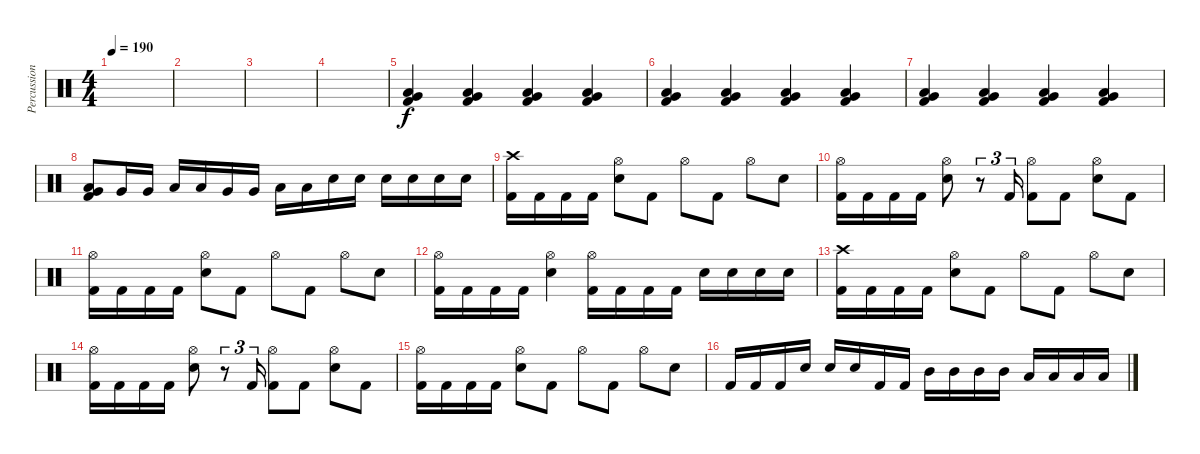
\track ("Percussion" "Percussion") {instrument percussion}
\staff {score}
\articulation defaults
\ts (4 4)
\tempo 190
\clef neutral
\ks c
|
|
|
|
("Low Floor Tom (hit)" "Very Low Tom (hit)" "Kick (hit) 2").4 ("Low Floor Tom (hit)" "Very Low Tom (hit)" "Kick (hit) 2").4 ("Low Floor Tom (hit)" "Very Low Tom (hit)" "Kick (hit) 2").4 ("Low Floor Tom (hit)" "Very Low Tom (hit)" "Kick (hit) 2").4 |
("Low Floor Tom (hit)" "Very Low Tom (hit)" "Kick (hit) 2").4 ("Low Floor Tom (hit)" "Very Low Tom (hit)" "Kick (hit) 2").4 ("Low Floor Tom (hit)" "Very Low Tom (hit)" "Kick (hit) 2").4 ("Low Floor Tom (hit)" "Very Low Tom (hit)" "Kick (hit) 2").4 |
("Low Floor Tom (hit)" "Very Low Tom (hit)" "Kick (hit) 2").4 ("Low Floor Tom (hit)" "Very Low Tom (hit)" "Kick (hit) 2").4 ("Low Floor Tom (hit)" "Very Low Tom (hit)" "Kick (hit) 2").4 ("Low Floor Tom (hit)" "Very Low Tom (hit)" "Kick (hit) 2").4 |
("Low Floor Tom (hit)" "Very Low Tom (hit)" "Kick (hit) 2").8 "Very Low Tom (hit)".16 "Very Low Tom (hit)".16 "Low Floor Tom (hit)".16 "Low Floor Tom (hit)".16 "Very Low Tom (hit)".16 "Very Low Tom (hit)".16 "Low Floor Tom (hit)".16 "Low Floor Tom (hit)".16 "Electric Snare (hit)".16 "Electric Snare (hit)".16 "Electric Snare (hit)".16 "Electric Snare (hit)".16 "Electric Snare (hit)".16 "Electric Snare (hit)".16 |
("Crash high (hit)" "Kick (hit) 2").16 "Kick (hit) 2".16 "Kick (hit) 2".16 "Kick (hit) 2".16 ("Hi-Hat (open)" "Electric Snare (hit)").8 "Kick (hit) 2".8 "Hi-Hat (open)".8 "Kick (hit) 2".8 "Hi-Hat (open)".8 "Electric Snare (hit)".8 |
("Hi-Hat (open)" "Kick (hit) 2").16 "Kick (hit) 2".16 "Kick (hit) 2".16 "Kick (hit) 2".16 ("Hi-Hat (open)" "Electric Snare (hit)").8 r.8{tu (3 2)} "Kick (hit) 2".16{tu (3 2)} ("Hi-Hat (open)" "Kick (hit) 2").8 "Kick (hit) 2".8 ("Hi-Hat (open)" "Electric Snare (hit)").8 "Kick (hit) 2".8 |
("Hi-Hat (open)" "Kick (hit) 2").16 "Kick (hit) 2".16 "Kick (hit) 2".16 "Kick (hit) 2".16 ("Hi-Hat (open)" "Electric Snare (hit)").8 "Kick (hit) 2".8 "Hi-Hat (open)".8 "Kick (hit) 2".8 "Hi-Hat (open)".8 "Electric Snare (hit)".8 |
("Hi-Hat (open)" "Kick (hit) 2").16 "Kick (hit) 2".16 "Kick (hit) 2".16 "Kick (hit) 2".16 ("Hi-Hat (open)" "Electric Snare (hit)").4 ("Hi-Hat (open)" "Kick (hit) 2").16 "Kick (hit) 2".16 "Kick (hit) 2".16 "Kick (hit) 2".16 "Electric Snare (hit)".16 "Electric Snare (hit)".16 "Electric Snare (hit)".16 "Electric Snare (hit)".16 |
("Crash high (hit)" "Kick (hit) 2").16 "Kick (hit) 2".16 "Kick (hit) 2".16 "Kick (hit) 2".16 ("Hi-Hat (open)" "Electric Snare (hit)").8 "Kick (hit) 2".8 "Hi-Hat (open)".8 "Kick (hit) 2".8 "Hi-Hat (open)".8 "Electric Snare (hit)".8 |
("Hi-Hat (open)" "Kick (hit) 2").16 "Kick (hit) 2".16 "Kick (hit) 2".16 "Kick (hit) 2".16 ("Hi-Hat (open)" "Electric Snare (hit)").8 r.8{tu (3 2)} "Kick (hit) 2".16{tu (3 2)} ("Hi-Hat (open)" "Kick (hit) 2").8 "Kick (hit) 2".8 ("Hi-Hat (open)" "Electric Snare (hit)").8 "Kick (hit) 2".8 |
("Hi-Hat (open)" "Kick (hit) 2").16 "Kick (hit) 2".16 "Kick (hit) 2".16 "Kick (hit) 2".16 ("Hi-Hat (open)" "Electric Snare (hit)").8 "Kick (hit) 2".8 "Hi-Hat (open)".8 "Kick (hit) 2".8 "Hi-Hat (open)".8 "Electric Snare (hit)".8 |
"Kick (hit) 2".16 "Kick (hit) 2".16 "Kick (hit) 2".16 "Electric Snare (hit)".16 "Electric Snare (hit)".16 "Electric Snare (hit)".16 "Kick (hit) 2".16 "Kick (hit) 2".16 "Mid Tom (hit)".16 "Mid Tom (hit)".16 "Mid Tom (hit)".16 "Mid Tom (hit)".16 "Low Tom (hit)".16 "Low Tom (hit)".16 "Low Tom (hit)".16 "Low Tom (hit)".16
